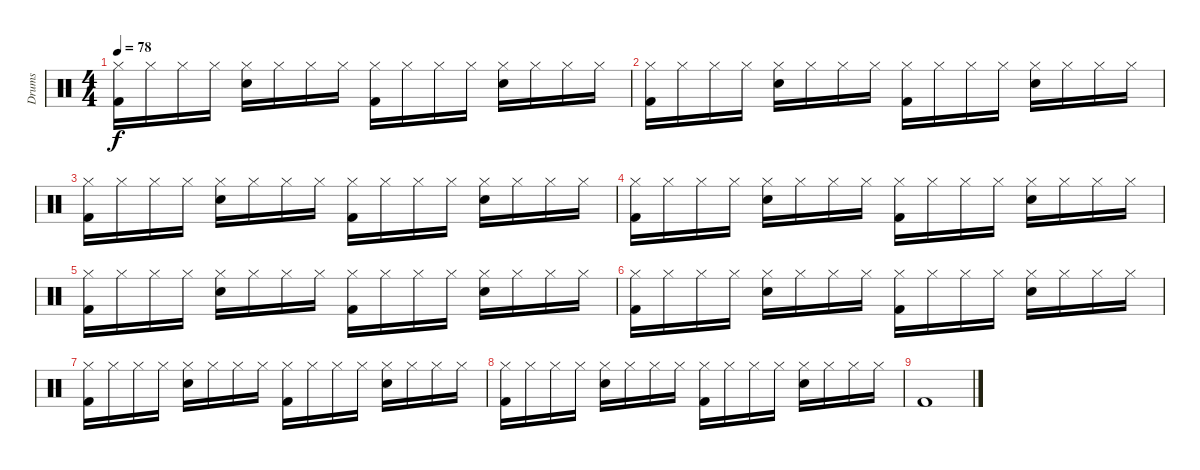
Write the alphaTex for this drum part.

\track ("Drums" "Drums") {instrument percussion}
\staff {score}
\articulation defaults
\ts (4 4)
\tempo 78
\clef neutral
\ks c
("Kick (hit) 2" "Hi-Hat (closed)").16{dy f} "Hi-Hat (closed)".16 "Hi-Hat (closed)".16 "Hi-Hat (closed)".16 ("Snare (hit) 2" "Hi-Hat (closed)").16 "Hi-Hat (closed)".16 "Hi-Hat (closed)".16 "Hi-Hat (closed)".16 ("Kick (hit) 2" "Hi-Hat (closed)").16 "Hi-Hat (closed)".16 "Hi-Hat (closed)".16 "Hi-Hat (closed)".16 ("Snare (hit) 2" "Hi-Hat (closed)").16 "Hi-Hat (closed)".16 "Hi-Hat (closed)".16 "Hi-Hat (closed)".16 |
("Kick (hit) 2" "Hi-Hat (closed)").16 "Hi-Hat (closed)".16 "Hi-Hat (closed)".16 "Hi-Hat (closed)".16 ("Snare (hit) 2" "Hi-Hat (closed)").16 "Hi-Hat (closed)".16 "Hi-Hat (closed)".16 "Hi-Hat (closed)".16 ("Kick (hit) 2" "Hi-Hat (closed)").16 "Hi-Hat (closed)".16 "Hi-Hat (closed)".16 "Hi-Hat (closed)".16 ("Snare (hit) 2" "Hi-Hat (closed)").16 "Hi-Hat (closed)".16 "Hi-Hat (closed)".16 "Hi-Hat (closed)".16 |
("Kick (hit) 2" "Hi-Hat (closed)").16 "Hi-Hat (closed)".16 "Hi-Hat (closed)".16 "Hi-Hat (closed)".16 ("Snare (hit) 2" "Hi-Hat (closed)").16 "Hi-Hat (closed)".16 "Hi-Hat (closed)".16 "Hi-Hat (closed)".16 ("Kick (hit) 2" "Hi-Hat (closed)").16 "Hi-Hat (closed)".16 "Hi-Hat (closed)".16 "Hi-Hat (closed)".16 ("Snare (hit) 2" "Hi-Hat (closed)").16 "Hi-Hat (closed)".16 "Hi-Hat (closed)".16 "Hi-Hat (closed)".16 |
("Kick (hit) 2" "Hi-Hat (closed)").16 "Hi-Hat (closed)".16 "Hi-Hat (closed)".16 "Hi-Hat (closed)".16 ("Snare (hit) 2" "Hi-Hat (closed)").16 "Hi-Hat (closed)".16 "Hi-Hat (closed)".16 "Hi-Hat (closed)".16 ("Kick (hit) 2" "Hi-Hat (closed)").16 "Hi-Hat (closed)".16 "Hi-Hat (closed)".16 "Hi-Hat (closed)".16 ("Snare (hit) 2" "Hi-Hat (closed)").16 "Hi-Hat (closed)".16 "Hi-Hat (closed)".16 "Hi-Hat (closed)".16 |
("Kick (hit) 2" "Hi-Hat (closed)").16 "Hi-Hat (closed)".16 "Hi-Hat (closed)".16 "Hi-Hat (closed)".16 ("Snare (hit) 2" "Hi-Hat (closed)").16 "Hi-Hat (closed)".16 "Hi-Hat (closed)".16 "Hi-Hat (closed)".16 ("Kick (hit) 2" "Hi-Hat (closed)").16 "Hi-Hat (closed)".16 "Hi-Hat (closed)".16 "Hi-Hat (closed)".16 ("Snare (hit) 2" "Hi-Hat (closed)").16 "Hi-Hat (closed)".16 "Hi-Hat (closed)".16 "Hi-Hat (closed)".16 |
("Kick (hit) 2" "Hi-Hat (closed)").16 "Hi-Hat (closed)".16 "Hi-Hat (closed)".16 "Hi-Hat (closed)".16 ("Snare (hit) 2" "Hi-Hat (closed)").16 "Hi-Hat (closed)".16 "Hi-Hat (closed)".16 "Hi-Hat (closed)".16 ("Kick (hit) 2" "Hi-Hat (closed)").16 "Hi-Hat (closed)".16 "Hi-Hat (closed)".16 "Hi-Hat (closed)".16 ("Snare (hit) 2" "Hi-Hat (closed)").16 "Hi-Hat (closed)".16 "Hi-Hat (closed)".16 "Hi-Hat (closed)".16 |
("Kick (hit) 2" "Hi-Hat (closed)").16 "Hi-Hat (closed)".16 "Hi-Hat (closed)".16 "Hi-Hat (closed)".16 ("Snare (hit) 2" "Hi-Hat (closed)").16 "Hi-Hat (closed)".16 "Hi-Hat (closed)".16 "Hi-Hat (closed)".16 ("Kick (hit) 2" "Hi-Hat (closed)").16 "Hi-Hat (closed)".16 "Hi-Hat (closed)".16 "Hi-Hat (closed)".16 ("Snare (hit) 2" "Hi-Hat (closed)").16 "Hi-Hat (closed)".16 "Hi-Hat (closed)".16 "Hi-Hat (closed)".16 |
("Kick (hit) 2" "Hi-Hat (closed)").16 "Hi-Hat (closed)".16 "Hi-Hat (closed)".16 "Hi-Hat (closed)".16 ("Snare (hit) 2" "Hi-Hat (closed)").16 "Hi-Hat (closed)".16 "Hi-Hat (closed)".16 "Hi-Hat (closed)".16 ("Kick (hit) 2" "Hi-Hat (closed)").16 "Hi-Hat (closed)".16 "Hi-Hat (closed)".16 "Hi-Hat (closed)".16 ("Snare (hit) 2" "Hi-Hat (closed)").16 "Hi-Hat (closed)".16 "Hi-Hat (closed)".16 "Hi-Hat (closed)".16 |
"Kick (hit) 2".1
